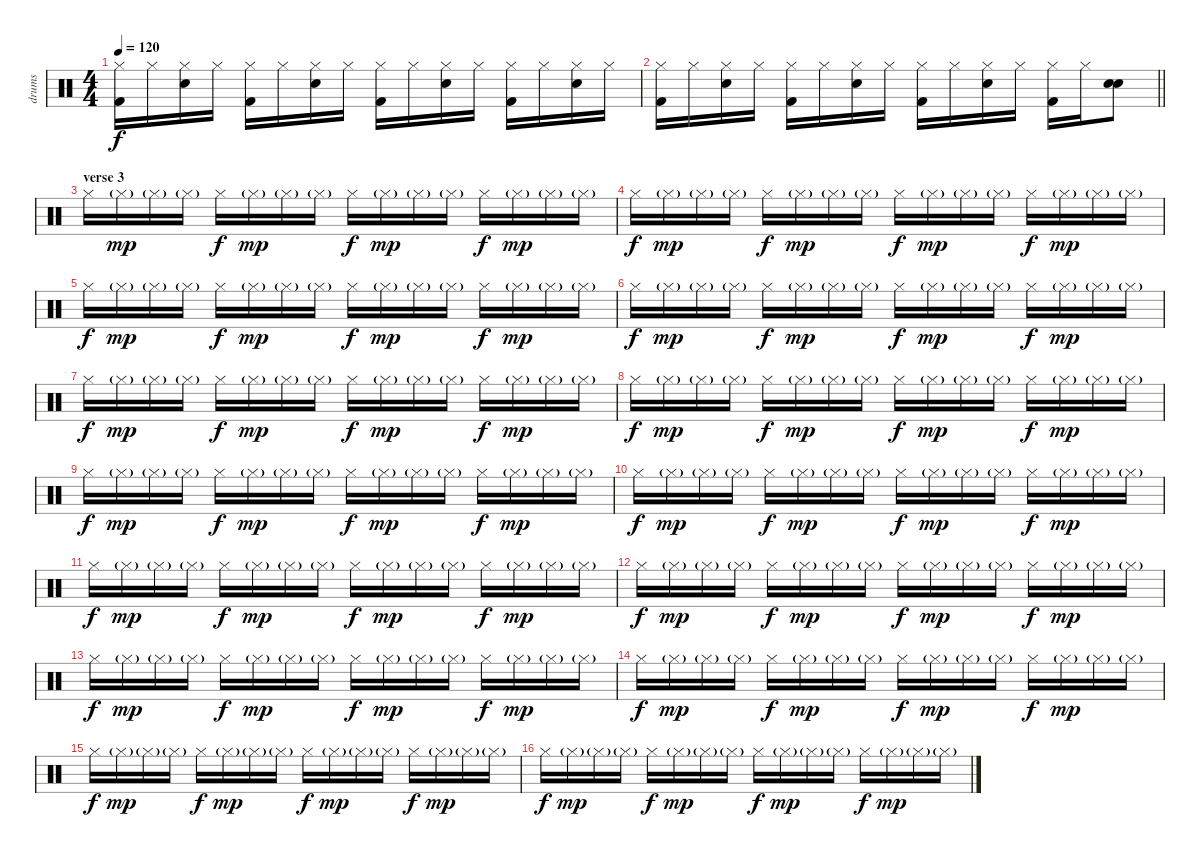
\track ("drums" "drums") {instrument percussion}
\staff {score}
\articulation defaults
\ts (4 4)
\tempo 120
\clef neutral
\ks c
("Hi-Hat (closed)" "Kick (hit) 2").16{dy f} "Hi-Hat (closed)".16 ("Hi-Hat (closed)" "Electric Snare (hit)").16 "Hi-Hat (closed)".16 ("Hi-Hat (closed)" "Kick (hit) 2").16 "Hi-Hat (closed)".16 ("Hi-Hat (closed)" "Electric Snare (hit)").16 "Hi-Hat (closed)".16 ("Hi-Hat (closed)" "Kick (hit) 2").16 "Hi-Hat (closed)".16 ("Hi-Hat (closed)" "Electric Snare (hit)").16 "Hi-Hat (closed)".16 ("Hi-Hat (closed)" "Kick (hit) 2").16 "Hi-Hat (closed)".16 ("Hi-Hat (closed)" "Electric Snare (hit)").16 "Hi-Hat (closed)".16 |
\barLineRight lightlight
("Hi-Hat (closed)" "Kick (hit) 2").16 "Hi-Hat (closed)".16 ("Hi-Hat (closed)" "Electric Snare (hit)").16 "Hi-Hat (closed)".16 ("Hi-Hat (closed)" "Kick (hit) 2").16 "Hi-Hat (closed)".16 ("Hi-Hat (closed)" "Electric Snare (hit)").16 "Hi-Hat (closed)".16 ("Hi-Hat (closed)" "Kick (hit) 2").16 "Hi-Hat (closed)".16 ("Hi-Hat (closed)" "Electric Snare (hit)").16 "Hi-Hat (closed)".16 ("Hi-Hat (closed)" "Kick (hit) 2").16 "Hi-Hat (closed)".16 ("Electric Snare (hit)" "Electric Snare (hit)").8 |
\section ("" "verse 3")
"Hi-Hat (closed)".16 "Hi-Hat (closed)"{g}.16{dy mp} "Hi-Hat (closed)"{g}.16 "Hi-Hat (closed)"{g}.16 "Hi-Hat (closed)".16{dy f} "Hi-Hat (closed)"{g}.16{dy mp} "Hi-Hat (closed)"{g}.16 "Hi-Hat (closed)"{g}.16 "Hi-Hat (closed)".16{dy f} "Hi-Hat (closed)"{g}.16{dy mp} "Hi-Hat (closed)"{g}.16 "Hi-Hat (closed)"{g}.16 "Hi-Hat (closed)".16{dy f} "Hi-Hat (closed)"{g}.16{dy mp} "Hi-Hat (closed)"{g}.16 "Hi-Hat (closed)"{g}.16 |
"Hi-Hat (closed)".16{dy f} "Hi-Hat (closed)"{g}.16{dy mp} "Hi-Hat (closed)"{g}.16 "Hi-Hat (closed)"{g}.16 "Hi-Hat (closed)".16{dy f} "Hi-Hat (closed)"{g}.16{dy mp} "Hi-Hat (closed)"{g}.16 "Hi-Hat (closed)"{g}.16 "Hi-Hat (closed)".16{dy f} "Hi-Hat (closed)"{g}.16{dy mp} "Hi-Hat (closed)"{g}.16 "Hi-Hat (closed)"{g}.16 "Hi-Hat (closed)".16{dy f} "Hi-Hat (closed)"{g}.16{dy mp} "Hi-Hat (closed)"{g}.16 "Hi-Hat (closed)"{g}.16 |
"Hi-Hat (closed)".16{dy f} "Hi-Hat (closed)"{g}.16{dy mp} "Hi-Hat (closed)"{g}.16 "Hi-Hat (closed)"{g}.16 "Hi-Hat (closed)".16{dy f} "Hi-Hat (closed)"{g}.16{dy mp} "Hi-Hat (closed)"{g}.16 "Hi-Hat (closed)"{g}.16 "Hi-Hat (closed)".16{dy f} "Hi-Hat (closed)"{g}.16{dy mp} "Hi-Hat (closed)"{g}.16 "Hi-Hat (closed)"{g}.16 "Hi-Hat (closed)".16{dy f} "Hi-Hat (closed)"{g}.16{dy mp} "Hi-Hat (closed)"{g}.16 "Hi-Hat (closed)"{g}.16 |
"Hi-Hat (closed)".16{dy f} "Hi-Hat (closed)"{g}.16{dy mp} "Hi-Hat (closed)"{g}.16 "Hi-Hat (closed)"{g}.16 "Hi-Hat (closed)".16{dy f} "Hi-Hat (closed)"{g}.16{dy mp} "Hi-Hat (closed)"{g}.16 "Hi-Hat (closed)"{g}.16 "Hi-Hat (closed)".16{dy f} "Hi-Hat (closed)"{g}.16{dy mp} "Hi-Hat (closed)"{g}.16 "Hi-Hat (closed)"{g}.16 "Hi-Hat (closed)".16{dy f} "Hi-Hat (closed)"{g}.16{dy mp} "Hi-Hat (closed)"{g}.16 "Hi-Hat (closed)"{g}.16 |
"Hi-Hat (closed)".16{dy f} "Hi-Hat (closed)"{g}.16{dy mp} "Hi-Hat (closed)"{g}.16 "Hi-Hat (closed)"{g}.16 "Hi-Hat (closed)".16{dy f} "Hi-Hat (closed)"{g}.16{dy mp} "Hi-Hat (closed)"{g}.16 "Hi-Hat (closed)"{g}.16 "Hi-Hat (closed)".16{dy f} "Hi-Hat (closed)"{g}.16{dy mp} "Hi-Hat (closed)"{g}.16 "Hi-Hat (closed)"{g}.16 "Hi-Hat (closed)".16{dy f} "Hi-Hat (closed)"{g}.16{dy mp} "Hi-Hat (closed)"{g}.16 "Hi-Hat (closed)"{g}.16 |
"Hi-Hat (closed)".16{dy f} "Hi-Hat (closed)"{g}.16{dy mp} "Hi-Hat (closed)"{g}.16 "Hi-Hat (closed)"{g}.16 "Hi-Hat (closed)".16{dy f} "Hi-Hat (closed)"{g}.16{dy mp} "Hi-Hat (closed)"{g}.16 "Hi-Hat (closed)"{g}.16 "Hi-Hat (closed)".16{dy f} "Hi-Hat (closed)"{g}.16{dy mp} "Hi-Hat (closed)"{g}.16 "Hi-Hat (closed)"{g}.16 "Hi-Hat (closed)".16{dy f} "Hi-Hat (closed)"{g}.16{dy mp} "Hi-Hat (closed)"{g}.16 "Hi-Hat (closed)"{g}.16 |
"Hi-Hat (closed)".16{dy f} "Hi-Hat (closed)"{g}.16{dy mp} "Hi-Hat (closed)"{g}.16 "Hi-Hat (closed)"{g}.16 "Hi-Hat (closed)".16{dy f} "Hi-Hat (closed)"{g}.16{dy mp} "Hi-Hat (closed)"{g}.16 "Hi-Hat (closed)"{g}.16 "Hi-Hat (closed)".16{dy f} "Hi-Hat (closed)"{g}.16{dy mp} "Hi-Hat (closed)"{g}.16 "Hi-Hat (closed)"{g}.16 "Hi-Hat (closed)".16{dy f} "Hi-Hat (closed)"{g}.16{dy mp} "Hi-Hat (closed)"{g}.16 "Hi-Hat (closed)"{g}.16 |
"Hi-Hat (closed)".16{dy f} "Hi-Hat (closed)"{g}.16{dy mp} "Hi-Hat (closed)"{g}.16 "Hi-Hat (closed)"{g}.16 "Hi-Hat (closed)".16{dy f} "Hi-Hat (closed)"{g}.16{dy mp} "Hi-Hat (closed)"{g}.16 "Hi-Hat (closed)"{g}.16 "Hi-Hat (closed)".16{dy f} "Hi-Hat (closed)"{g}.16{dy mp} "Hi-Hat (closed)"{g}.16 "Hi-Hat (closed)"{g}.16 "Hi-Hat (closed)".16{dy f} "Hi-Hat (closed)"{g}.16{dy mp} "Hi-Hat (closed)"{g}.16 "Hi-Hat (closed)"{g}.16 |
"Hi-Hat (closed)".16{dy f} "Hi-Hat (closed)"{g}.16{dy mp} "Hi-Hat (closed)"{g}.16 "Hi-Hat (closed)"{g}.16 "Hi-Hat (closed)".16{dy f} "Hi-Hat (closed)"{g}.16{dy mp} "Hi-Hat (closed)"{g}.16 "Hi-Hat (closed)"{g}.16 "Hi-Hat (closed)".16{dy f} "Hi-Hat (closed)"{g}.16{dy mp} "Hi-Hat (closed)"{g}.16 "Hi-Hat (closed)"{g}.16 "Hi-Hat (closed)".16{dy f} "Hi-Hat (closed)"{g}.16{dy mp} "Hi-Hat (closed)"{g}.16 "Hi-Hat (closed)"{g}.16 |
"Hi-Hat (closed)".16{dy f} "Hi-Hat (closed)"{g}.16{dy mp} "Hi-Hat (closed)"{g}.16 "Hi-Hat (closed)"{g}.16 "Hi-Hat (closed)".16{dy f} "Hi-Hat (closed)"{g}.16{dy mp} "Hi-Hat (closed)"{g}.16 "Hi-Hat (closed)"{g}.16 "Hi-Hat (closed)".16{dy f} "Hi-Hat (closed)"{g}.16{dy mp} "Hi-Hat (closed)"{g}.16 "Hi-Hat (closed)"{g}.16 "Hi-Hat (closed)".16{dy f} "Hi-Hat (closed)"{g}.16{dy mp} "Hi-Hat (closed)"{g}.16 "Hi-Hat (closed)"{g}.16 |
"Hi-Hat (closed)".16{dy f} "Hi-Hat (closed)"{g}.16{dy mp} "Hi-Hat (closed)"{g}.16 "Hi-Hat (closed)"{g}.16 "Hi-Hat (closed)".16{dy f} "Hi-Hat (closed)"{g}.16{dy mp} "Hi-Hat (closed)"{g}.16 "Hi-Hat (closed)"{g}.16 "Hi-Hat (closed)".16{dy f} "Hi-Hat (closed)"{g}.16{dy mp} "Hi-Hat (closed)"{g}.16 "Hi-Hat (closed)"{g}.16 "Hi-Hat (closed)".16{dy f} "Hi-Hat (closed)"{g}.16{dy mp} "Hi-Hat (closed)"{g}.16 "Hi-Hat (closed)"{g}.16 |
"Hi-Hat (closed)".16{dy f} "Hi-Hat (closed)"{g}.16{dy mp} "Hi-Hat (closed)"{g}.16 "Hi-Hat (closed)"{g}.16 "Hi-Hat (closed)".16{dy f} "Hi-Hat (closed)"{g}.16{dy mp} "Hi-Hat (closed)"{g}.16 "Hi-Hat (closed)"{g}.16 "Hi-Hat (closed)".16{dy f} "Hi-Hat (closed)"{g}.16{dy mp} "Hi-Hat (closed)"{g}.16 "Hi-Hat (closed)"{g}.16 "Hi-Hat (closed)".16{dy f} "Hi-Hat (closed)"{g}.16{dy mp} "Hi-Hat (closed)"{g}.16 "Hi-Hat (closed)"{g}.16 |
"Hi-Hat (closed)".16{dy f} "Hi-Hat (closed)"{g}.16{dy mp} "Hi-Hat (closed)"{g}.16 "Hi-Hat (closed)"{g}.16 "Hi-Hat (closed)".16{dy f} "Hi-Hat (closed)"{g}.16{dy mp} "Hi-Hat (closed)"{g}.16 "Hi-Hat (closed)"{g}.16 "Hi-Hat (closed)".16{dy f} "Hi-Hat (closed)"{g}.16{dy mp} "Hi-Hat (closed)"{g}.16 "Hi-Hat (closed)"{g}.16 "Hi-Hat (closed)".16{dy f} "Hi-Hat (closed)"{g}.16{dy mp} "Hi-Hat (closed)"{g}.16 "Hi-Hat (closed)"{g}.16 |
"Hi-Hat (closed)".16{dy f} "Hi-Hat (closed)"{g}.16{dy mp} "Hi-Hat (closed)"{g}.16 "Hi-Hat (closed)"{g}.16 "Hi-Hat (closed)".16{dy f} "Hi-Hat (closed)"{g}.16{dy mp} "Hi-Hat (closed)"{g}.16 "Hi-Hat (closed)"{g}.16 "Hi-Hat (closed)".16{dy f} "Hi-Hat (closed)"{g}.16{dy mp} "Hi-Hat (closed)"{g}.16 "Hi-Hat (closed)"{g}.16 "Hi-Hat (closed)".16{dy f} "Hi-Hat (closed)"{g}.16{dy mp} "Hi-Hat (closed)"{g}.16 "Hi-Hat (closed)"{g}.16
